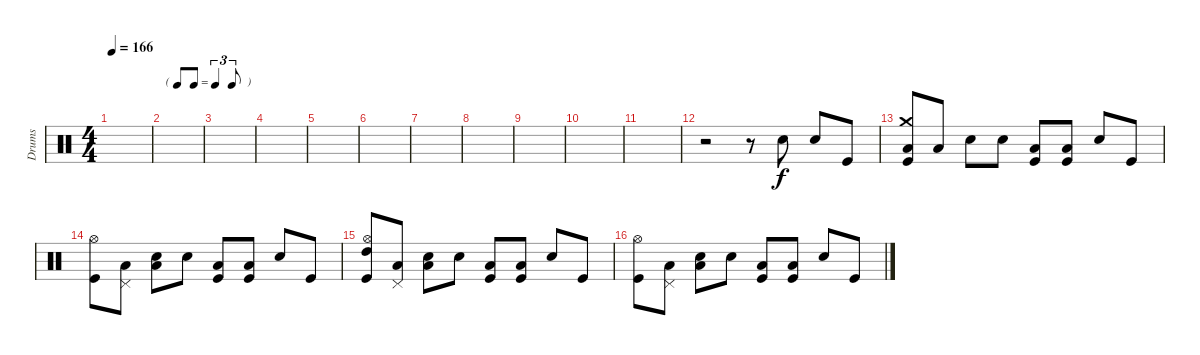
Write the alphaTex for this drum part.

\track ("Drums" "Drums") {instrument percussion}
\staff {score}
\articulation defaults
\ts (4 4)
\tempo 166
\clef neutral
\ks c
|
\tf triplet8th
|
|
|
|
|
|
|
|
|
|
r.2 r.8 "Snare (hit) 2".8 "Snare (hit) 2".8 "Kick (hit)".8 |
("Crash medium (hit)" "Low Tom (hit)" "Kick (hit)").8 "Low Floor Tom (hit)".8 "Snare (hit) 2".8 "Snare (hit) 2".8 ("Low Tom (hit)" "Kick (hit)").8 ("Low Floor Tom (hit)" "Kick (hit)").8 "Snare (hit) 2".8 "Kick (hit)".8 |
("Hi-Hat (open)" "Kick (hit)").8 ("Pedal Hi-Hat (hit)" "Low Tom (hit)").8 ("Snare (hit) 2" "Low Floor Tom (hit)").8 "Snare (hit) 2".8 ("Low Tom (hit)" "Kick (hit)").8 ("Low Floor Tom (hit)" "Kick (hit)").8 "Snare (hit) 2".8 "Kick (hit)".8 |
("Hi-Hat (open)" "High Tom (hit)" "Kick (hit)").8 ("Pedal Hi-Hat (hit)" "Low Tom (hit)").8 ("Snare (hit) 2" "Low Floor Tom (hit)").8 "Snare (hit) 2".8 ("Low Tom (hit)" "Kick (hit)").8 ("Low Floor Tom (hit)" "Kick (hit)").8 "Snare (hit) 2".8 "Kick (hit)".8 |
("Hi-Hat (open)" "Kick (hit)").8 ("Pedal Hi-Hat (hit)" "Low Tom (hit)").8 ("Snare (hit) 2" "Low Floor Tom (hit)").8 "Snare (hit) 2".8 ("Low Tom (hit)" "Kick (hit)").8 ("Low Floor Tom (hit)" "Kick (hit)").8 "Snare (hit) 2".8 "Kick (hit)".8
